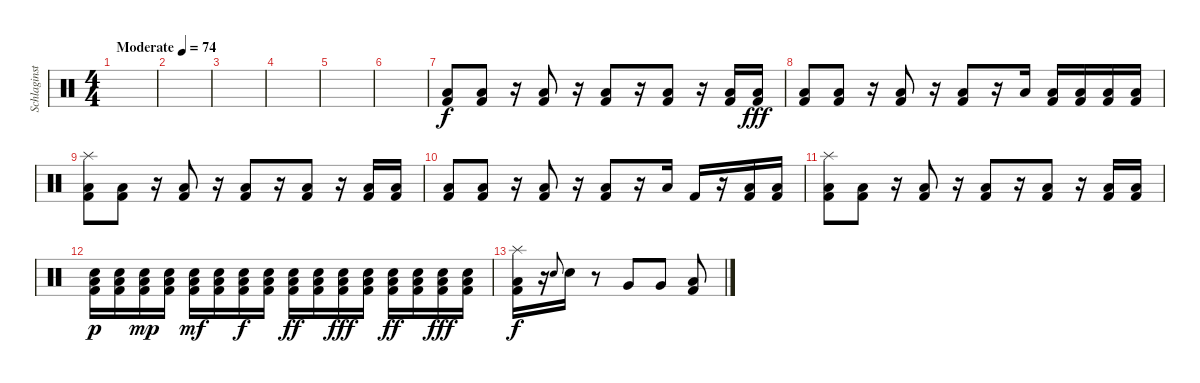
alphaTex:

\track ("Schlaginstrumente - Auswahl" "Schlaginst") {instrument percussion}
\staff {score}
\articulation defaults
\ts (4 4)
\tempo (74 "Moderate")
\clef neutral
\ks c
|
|
|
|
|
|
("Low Floor Tom (hit)" "Kick (hit) 2").8 ("Low Floor Tom (hit)" "Kick (hit) 2").8 r.16 ("Low Floor Tom (hit)" "Kick (hit) 2").8 r.16 ("Low Floor Tom (hit)" "Kick (hit) 2").8 r.16 ("Low Floor Tom (hit)" "Kick (hit) 2").8 r.16 ("Low Floor Tom (hit)" "Kick (hit) 2").16 ("Low Floor Tom (hit)" "Kick (hit) 2").16{dy fff} |
("Low Floor Tom (hit)" "Kick (hit) 2").8 ("Low Floor Tom (hit)" "Kick (hit) 2").8 r.16 ("Low Floor Tom (hit)" "Kick (hit) 2").8 r.16 ("Low Floor Tom (hit)" "Kick (hit) 2").8 r.16 "Low Floor Tom (hit)".16 ("Low Floor Tom (hit)" "Kick (hit) 2").16 ("Low Floor Tom (hit)" "Kick (hit) 2").16 ("Low Floor Tom (hit)" "Kick (hit) 2").16 ("Low Floor Tom (hit)" "Kick (hit) 2").16 |
("Splash (hit)" "Low Floor Tom (hit)" "Kick (hit) 2").8 ("Low Floor Tom (hit)" "Kick (hit) 2").8 r.16 ("Low Floor Tom (hit)" "Kick (hit) 2").8 r.16 ("Low Floor Tom (hit)" "Kick (hit) 2").8 r.16 ("Low Floor Tom (hit)" "Kick (hit) 2").8 r.16 ("Low Floor Tom (hit)" "Kick (hit) 2").16 ("Low Floor Tom (hit)" "Kick (hit) 2").16 |
("Low Floor Tom (hit)" "Kick (hit) 2").8 ("Low Floor Tom (hit)" "Kick (hit) 2").8 r.16 ("Low Floor Tom (hit)" "Kick (hit) 2").8 r.16 ("Low Floor Tom (hit)" "Kick (hit) 2").8 r.16 "Low Floor Tom (hit)".16 "Kick (hit) 2".16 r.16 ("Low Floor Tom (hit)" "Kick (hit) 2").16 ("Low Floor Tom (hit)" "Kick (hit) 2").16 |
("Splash (hit)" "Low Floor Tom (hit)" "Kick (hit) 2").8 ("Low Floor Tom (hit)" "Kick (hit) 2").8 r.16 ("Low Floor Tom (hit)" "Kick (hit) 2").8 r.16 ("Low Floor Tom (hit)" "Kick (hit) 2").8 r.16 ("Low Floor Tom (hit)" "Kick (hit) 2").8 r.16 ("Low Floor Tom (hit)" "Kick (hit) 2").16 ("Low Floor Tom (hit)" "Kick (hit) 2").16 |
("Low Floor Tom (hit)" "Electric Snare (hit)" "Kick (hit) 2").16{dy p} ("Low Floor Tom (hit)" "Electric Snare (hit)" "Kick (hit) 2").16 ("Low Floor Tom (hit)" "Electric Snare (hit)" "Kick (hit) 2").16{dy mp} ("Low Floor Tom (hit)" "Electric Snare (hit)" "Kick (hit) 2").16 ("Low Floor Tom (hit)" "Electric Snare (hit)" "Kick (hit) 2").16{dy mf} ("Low Floor Tom (hit)" "Electric Snare (hit)" "Kick (hit) 2").16 ("Low Floor Tom (hit)" "Electric Snare (hit)" "Kick (hit) 2").16{dy f} ("Low Floor Tom (hit)" "Electric Snare (hit)" "Kick (hit) 2").16 ("Low Floor Tom (hit)" "Electric Snare (hit)" "Kick (hit) 2").16{dy ff} ("Low Floor Tom (hit)" "Electric Snare (hit)" "Kick (hit) 2").16 ("Low Floor Tom (hit)" "Electric Snare (hit)" "Kick (hit) 2").16{dy fff} ("Low Floor Tom (hit)" "Electric Snare (hit)" "Kick (hit) 2").16 ("Low Floor Tom (hit)" "Electric Snare (hit)" "Kick (hit) 2").16{dy ff} ("Low Floor Tom (hit)" "Electric Snare (hit)" "Kick (hit) 2").16 ("Low Floor Tom (hit)" "Electric Snare (hit)" "Kick (hit) 2").16{dy fff} ("Low Floor Tom (hit)" "Electric Snare (hit)" "Kick (hit) 2").16 |
("Splash (hit)" "Low Floor Tom (hit)" "Kick (hit) 2").16{dy f} r.16 "Electric Snare (hit)".8{gr onbeat} "Electric Snare (hit)".16 r.8 "Very Low Tom (hit)".8 "Very Low Tom (hit)".8 ("Low Floor Tom (hit)" "Kick (hit) 2").8
